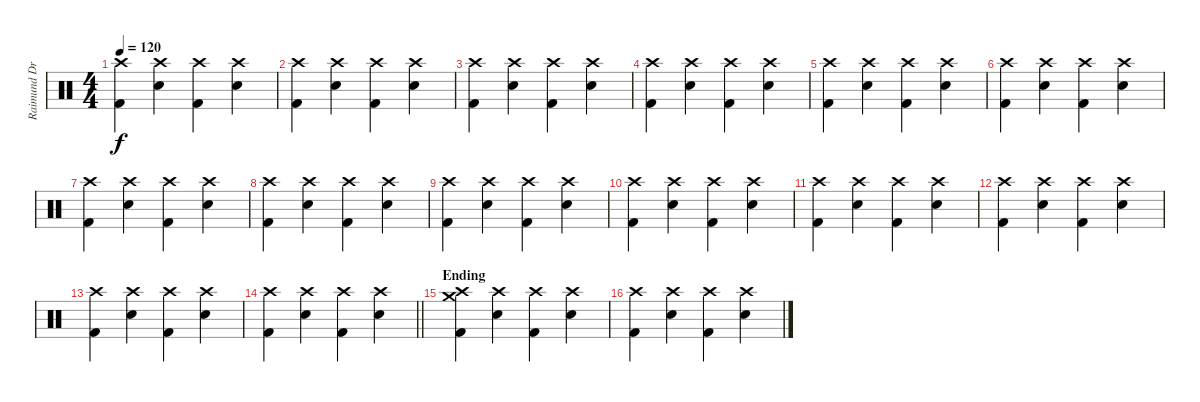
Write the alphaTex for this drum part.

\track ("Raimund Drums" "Raimund Dr") {instrument percussion}
\staff {score}
\articulation defaults
\ts (4 4)
\tempo 120
\clef neutral
\ks c
("Crash high (hit)" "Kick (hit) 2").4{dy f} ("Crash high (hit)" "Electric Snare (hit)").4 ("Crash high (hit)" "Kick (hit) 2").4 ("Crash high (hit)" "Electric Snare (hit)").4 |
("Crash high (hit)" "Kick (hit) 2").4 ("Crash high (hit)" "Electric Snare (hit)").4 ("Crash high (hit)" "Kick (hit) 2").4 ("Crash high (hit)" "Electric Snare (hit)").4 |
("Crash high (hit)" "Kick (hit) 2").4 ("Crash high (hit)" "Electric Snare (hit)").4 ("Crash high (hit)" "Kick (hit) 2").4 ("Crash high (hit)" "Electric Snare (hit)").4 |
("Crash high (hit)" "Kick (hit) 2").4 ("Crash high (hit)" "Electric Snare (hit)").4 ("Crash high (hit)" "Kick (hit) 2").4 ("Crash high (hit)" "Electric Snare (hit)").4 |
("Crash high (hit)" "Kick (hit) 2").4 ("Crash high (hit)" "Electric Snare (hit)").4 ("Crash high (hit)" "Kick (hit) 2").4 ("Crash high (hit)" "Electric Snare (hit)").4 |
("Crash high (hit)" "Kick (hit) 2").4 ("Crash high (hit)" "Electric Snare (hit)").4 ("Crash high (hit)" "Kick (hit) 2").4 ("Crash high (hit)" "Electric Snare (hit)").4 |
("Crash high (hit)" "Kick (hit) 2").4 ("Crash high (hit)" "Electric Snare (hit)").4 ("Crash high (hit)" "Kick (hit) 2").4 ("Crash high (hit)" "Electric Snare (hit)").4 |
("Crash high (hit)" "Kick (hit) 2").4 ("Crash high (hit)" "Electric Snare (hit)").4 ("Crash high (hit)" "Kick (hit) 2").4 ("Crash high (hit)" "Electric Snare (hit)").4 |
("Crash high (hit)" "Kick (hit) 2").4 ("Crash high (hit)" "Electric Snare (hit)").4 ("Crash high (hit)" "Kick (hit) 2").4 ("Crash high (hit)" "Electric Snare (hit)").4 |
("Crash high (hit)" "Kick (hit) 2").4 ("Crash high (hit)" "Electric Snare (hit)").4 ("Crash high (hit)" "Kick (hit) 2").4 ("Crash high (hit)" "Electric Snare (hit)").4 |
("Crash high (hit)" "Kick (hit) 2").4 ("Crash high (hit)" "Electric Snare (hit)").4 ("Crash high (hit)" "Kick (hit) 2").4 ("Crash high (hit)" "Electric Snare (hit)").4 |
("Crash high (hit)" "Kick (hit) 2").4 ("Crash high (hit)" "Electric Snare (hit)").4 ("Crash high (hit)" "Kick (hit) 2").4 ("Crash high (hit)" "Electric Snare (hit)").4 |
("Crash high (hit)" "Kick (hit) 2").4 ("Crash high (hit)" "Electric Snare (hit)").4 ("Crash high (hit)" "Kick (hit) 2").4 ("Crash high (hit)" "Electric Snare (hit)").4 |
\barLineRight lightlight
("Crash high (hit)" "Kick (hit) 2").4 ("Crash high (hit)" "Electric Snare (hit)").4 ("Crash high (hit)" "Kick (hit) 2").4 ("Crash high (hit)" "Electric Snare (hit)").4 |
\section ("" "Ending")
("Crash high (hit)" "Crash medium (hit)" "Kick (hit) 2").4 ("Crash high (hit)" "Electric Snare (hit)").4 ("Crash high (hit)" "Kick (hit) 2").4 ("Crash high (hit)" "Electric Snare (hit)").4 |
("Crash high (hit)" "Kick (hit) 2").4 ("Crash high (hit)" "Electric Snare (hit)").4 ("Crash high (hit)" "Kick (hit) 2").4 ("Crash high (hit)" "Electric Snare (hit)").4
